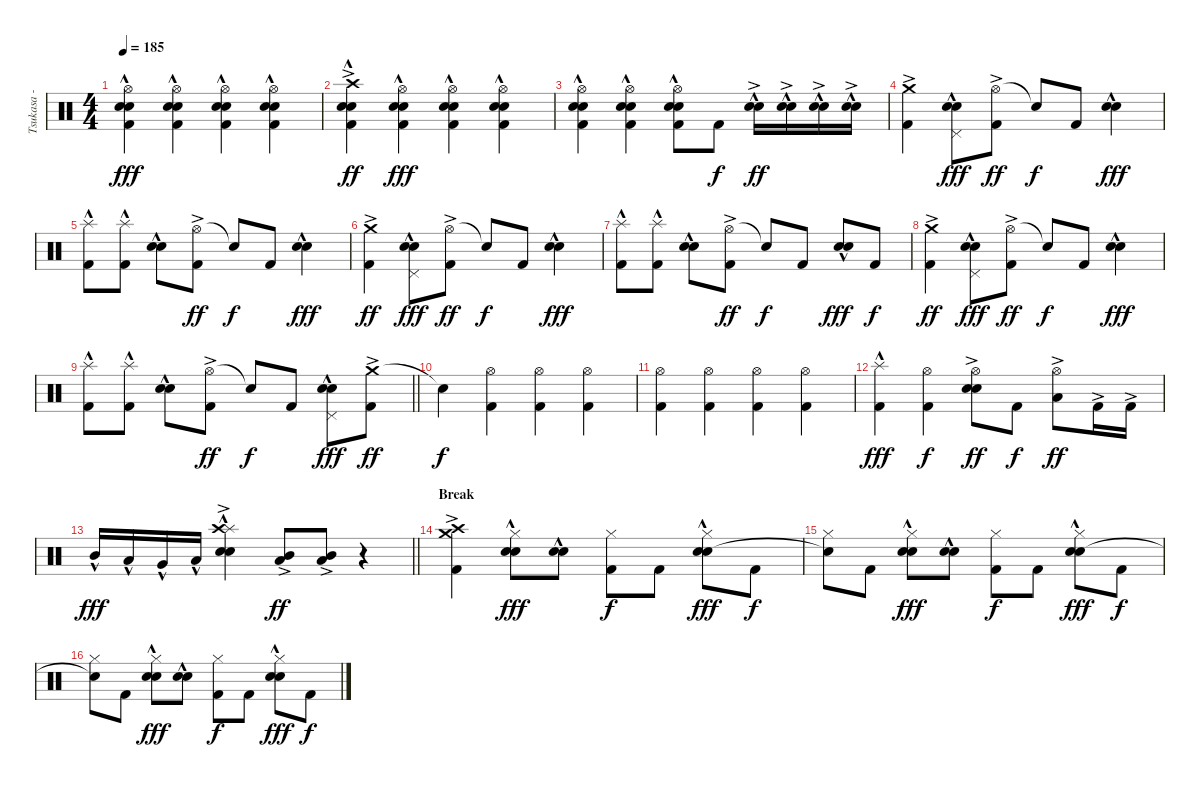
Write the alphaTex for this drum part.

\track ("Tsukasa - Drums" "Tsukasa - ") {instrument percussion}
\staff {score}
\articulation defaults
\ts (4 4)
\tempo 185
\clef neutral
\ks c
("Hi-Hat (open)" "Electric Snare (hit)"{hac} "Snare (hit) 2" "Kick (hit) 2").4{dy fff} ("Hi-Hat (open)" "Electric Snare (hit)"{hac} "Snare (hit) 2" "Kick (hit) 2").4 ("Hi-Hat (open)" "Electric Snare (hit)"{hac} "Snare (hit) 2" "Kick (hit) 2").4 ("Hi-Hat (open)" "Electric Snare (hit)"{hac} "Snare (hit) 2" "Kick (hit) 2").4 |
("Crash high (hit)"{ac} "Electric Snare (hit)"{hac} "Snare (hit) 2"{ac} "Kick (hit) 2").4{dy ff} ("Hi-Hat (open)" "Electric Snare (hit)"{hac} "Snare (hit) 2" "Kick (hit) 2").4{dy fff} ("Hi-Hat (open)" "Electric Snare (hit)"{hac} "Snare (hit) 2" "Kick (hit) 2").4 ("Hi-Hat (open)" "Electric Snare (hit)"{hac} "Snare (hit) 2" "Kick (hit) 2").4 |
("Hi-Hat (open)" "Electric Snare (hit)"{hac} "Snare (hit) 2" "Kick (hit) 2").4 ("Hi-Hat (open)" "Electric Snare (hit)"{hac} "Snare (hit) 2" "Kick (hit) 2").4 ("Hi-Hat (open)" "Electric Snare (hit)"{hac} "Snare (hit) 2" "Kick (hit) 2").8 "Kick (hit) 2".8{dy f} ("Electric Snare (hit)"{hac} "Snare (hit) 2"{ac}).16{dy ff} ("Electric Snare (hit)"{hac} "Snare (hit) 2"{ac}).16 ("Electric Snare (hit)"{hac} "Snare (hit) 2"{ac}).16 ("Electric Snare (hit)"{hac} "Snare (hit) 2"{ac}).16 |
("Crash medium (hit)"{ac} "Kick (hit) 2").4 ("Pedal Hi-Hat (hit)" "Electric Snare (hit)"{hac} "Snare (hit) 2"{hac}).8{dy fff} ("Hi-Hat (open)"{ac} "Kick (hit) 2").8{dy ff} "Snare (hit)"{t}.8{dy f} "Kick (hit) 2".8 ("Electric Snare (hit)"{hac} "Snare (hit) 2"{hac}).4{dy fff} |
("Splash (hit)"{hac} "Kick (hit) 2").8 ("Splash (hit)"{hac} "Kick (hit) 2").8 ("Electric Snare (hit)"{hac} "Snare (hit) 2"{hac}).8 ("Hi-Hat (open)"{ac} "Kick (hit) 2").8{dy ff} "Snare (hit)"{t}.8{dy f} "Kick (hit) 2".8 ("Electric Snare (hit)"{hac} "Snare (hit) 2"{hac}).4{dy fff} |
("Crash medium (hit)"{ac} "Kick (hit) 2").4{dy ff} ("Pedal Hi-Hat (hit)" "Electric Snare (hit)"{hac} "Snare (hit) 2"{hac}).8{dy fff} ("Hi-Hat (open)"{ac} "Kick (hit) 2").8{dy ff} "Snare (hit)"{t}.8{dy f} "Kick (hit) 2".8 ("Electric Snare (hit)"{hac} "Snare (hit) 2"{hac}).4{dy fff} |
("Splash (hit)"{hac} "Kick (hit) 2").8 ("Splash (hit)"{hac} "Kick (hit) 2").8 ("Electric Snare (hit)"{hac} "Snare (hit) 2"{hac}).8 ("Hi-Hat (open)"{ac} "Kick (hit) 2").8{dy ff} "Snare (hit)"{t}.8{dy f} "Kick (hit) 2".8 ("Electric Snare (hit)"{hac} "Snare (hit) 2"{hac}).8{dy fff} "Kick (hit) 2".8{dy f} |
("Crash medium (hit)"{ac} "Kick (hit) 2").4{dy ff} ("Pedal Hi-Hat (hit)" "Electric Snare (hit)"{hac} "Snare (hit) 2"{hac}).8{dy fff} ("Hi-Hat (open)"{ac} "Kick (hit) 2").8{dy ff} "Snare (hit)"{t}.8{dy f} "Kick (hit) 2".8 ("Electric Snare (hit)"{hac} "Snare (hit) 2"{hac}).4{dy fff} |
\barLineRight lightlight
("Splash (hit)"{hac} "Kick (hit) 2").8 ("Splash (hit)"{hac} "Kick (hit) 2").8 ("Electric Snare (hit)"{hac} "Snare (hit) 2"{hac}).8 ("Hi-Hat (open)"{ac} "Kick (hit) 2").8{dy ff} "Snare (hit)"{t}.8{dy f} "Kick (hit) 2".8 ("Pedal Hi-Hat (hit)" "Electric Snare (hit)"{hac} "Snare (hit) 2"{hac}).8{dy fff} ("Crash medium (hit)"{ac} "Kick (hit) 2").8{dy ff} |
\section ("" "")
"Snare (hit)"{t}.4{dy f} ("Hi-Hat (open)" "Kick (hit) 2").4 ("Hi-Hat (open)" "Kick (hit) 2").4 ("Hi-Hat (open)" "Kick (hit) 2").4 |
("Hi-Hat (open)" "Kick (hit) 2").4 ("Hi-Hat (open)" "Kick (hit) 2").4 ("Hi-Hat (open)" "Kick (hit) 2").4 ("Hi-Hat (open)" "Kick (hit) 2").4 |
("Splash (hit)"{hac} "Kick (hit) 2").4{dy fff} ("Hi-Hat (open)" "Kick (hit) 2").4{dy f} ("Hi-Hat (open)" "Electric Snare (hit)"{ac} "Snare (hit) 2"{ac}).8{dy ff} "Kick (hit) 2".8{dy f} ("Hi-Hat (open)" "Low Tom (hit)"{ac}).8{dy ff} "Kick (hit) 2"{ac}.16 "Kick (hit) 2"{ac}.16 |
\barLineRight lightlight "Mid Tom (hit)"{hac}.16{dy fff} "Low Tom (hit)"{hac}.16 "Very Low Tom (hit)"{hac}.16 "Low Floor Tom (hit)"{hac}.16
("Splash (hit)"{hac} "Crash high (hit)"{ac} "Electric Snare (hit)"{hac} "Snare (hit) 2"{hac}).4 ("Mid Tom (hit)"{ac} "Low Tom (hit)"{ac}).8{dy ff} ("Mid Tom (hit)"{ac} "Low Tom (hit)"{ac}).8 r.4 |
\section ("" "Break")
("Crash medium (hit)"{ac} "Crash high (hit)" "Kick (hit) 2").4 ("Hi-Hat (closed)" "Electric Snare (hit)"{hac} "Snare (hit) 2"{hac}).8{dy fff} ("Electric Snare (hit)"{hac} "Snare (hit) 2"{hac}).8 ("Hi-Hat (closed)" "Kick (hit) 2").8{dy f} "Kick (hit) 2".8 ("Hi-Hat (closed)" "Electric Snare (hit)"{hac} "Snare (hit) 2"{hac}).8{dy fff} "Kick (hit) 2".8{dy f} |
("Hi-Hat (closed)" "Snare (hit)"{t}).8 "Kick (hit) 2".8 ("Hi-Hat (closed)" "Electric Snare (hit)"{hac} "Snare (hit) 2"{hac}).8{dy fff} ("Electric Snare (hit)"{hac} "Snare (hit) 2"{hac}).8 ("Hi-Hat (closed)" "Kick (hit) 2").8{dy f} "Kick (hit) 2".8 ("Hi-Hat (closed)" "Electric Snare (hit)"{hac} "Snare (hit) 2"{hac}).8{dy fff} "Kick (hit) 2".8{dy f} |
("Hi-Hat (closed)" "Snare (hit)"{t}).8 "Kick (hit) 2".8 ("Hi-Hat (closed)" "Electric Snare (hit)"{hac} "Snare (hit) 2"{hac}).8{dy fff} ("Electric Snare (hit)"{hac} "Snare (hit) 2"{hac}).8 ("Hi-Hat (closed)" "Kick (hit) 2").8{dy f} "Kick (hit) 2".8 ("Hi-Hat (closed)" "Electric Snare (hit)"{hac} "Snare (hit) 2"{hac}).8{dy fff} "Kick (hit) 2".8{dy f}
